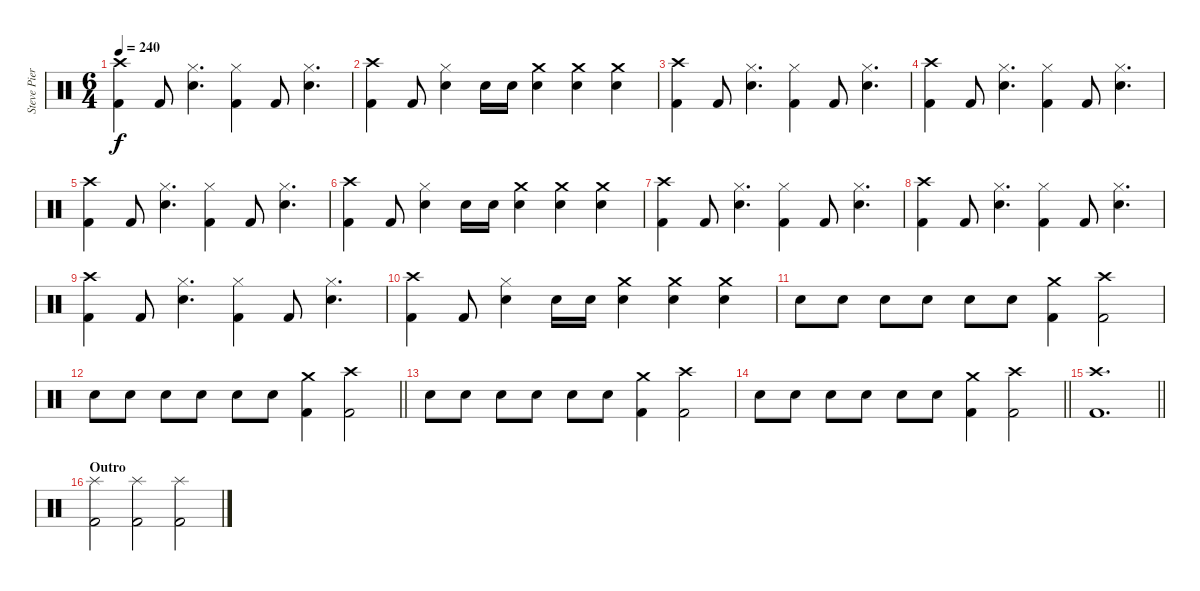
\track ("Steve Pierce" "Steve Pier") {instrument percussion}
\staff {score}
\articulation defaults
\ts (6 4)
\tempo 240
\clef neutral
\ks c
("Crash high (hit)" "Kick (hit) 2").4{dy f} "Kick (hit) 2".8 ("Hi-Hat (closed)" "Snare (hit) 2").4{d} ("Hi-Hat (closed)" "Kick (hit) 2").4 "Kick (hit) 2".8 ("Hi-Hat (closed)" "Snare (hit) 2").4{d} |
("Crash high (hit)" "Kick (hit) 2").4 "Kick (hit) 2".8 ("Hi-Hat (closed)" "Snare (hit) 2").4 "Snare (hit) 2".16 "Snare (hit) 2".16 ("Crash medium (hit)" "Snare (hit) 2").4 ("Crash medium (hit)" "Snare (hit) 2").4 ("Crash medium (hit)" "Snare (hit) 2").4 |
("Crash high (hit)" "Kick (hit) 2").4 "Kick (hit) 2".8 ("Hi-Hat (closed)" "Snare (hit) 2").4{d} ("Hi-Hat (closed)" "Kick (hit) 2").4 "Kick (hit) 2".8 ("Hi-Hat (closed)" "Snare (hit) 2").4{d} |
("Crash high (hit)" "Kick (hit) 2").4 "Kick (hit) 2".8 ("Hi-Hat (closed)" "Snare (hit) 2").4{d} ("Hi-Hat (closed)" "Kick (hit) 2").4 "Kick (hit) 2".8 ("Hi-Hat (closed)" "Snare (hit) 2").4{d} |
("Crash high (hit)" "Kick (hit) 2").4 "Kick (hit) 2".8 ("Hi-Hat (closed)" "Snare (hit) 2").4{d} ("Hi-Hat (closed)" "Kick (hit) 2").4 "Kick (hit) 2".8 ("Hi-Hat (closed)" "Snare (hit) 2").4{d} |
("Crash high (hit)" "Kick (hit) 2").4 "Kick (hit) 2".8 ("Hi-Hat (closed)" "Snare (hit) 2").4 "Snare (hit) 2".16 "Snare (hit) 2".16 ("Crash medium (hit)" "Snare (hit) 2").4 ("Crash medium (hit)" "Snare (hit) 2").4 ("Crash medium (hit)" "Snare (hit) 2").4 |
("Crash high (hit)" "Kick (hit) 2").4 "Kick (hit) 2".8 ("Hi-Hat (closed)" "Snare (hit) 2").4{d} ("Hi-Hat (closed)" "Kick (hit) 2").4 "Kick (hit) 2".8 ("Hi-Hat (closed)" "Snare (hit) 2").4{d} |
("Crash high (hit)" "Kick (hit) 2").4 "Kick (hit) 2".8 ("Hi-Hat (closed)" "Snare (hit) 2").4{d} ("Hi-Hat (closed)" "Kick (hit) 2").4 "Kick (hit) 2".8 ("Hi-Hat (closed)" "Snare (hit) 2").4{d} |
("Crash high (hit)" "Kick (hit) 2").4 "Kick (hit) 2".8 ("Hi-Hat (closed)" "Snare (hit) 2").4{d} ("Hi-Hat (closed)" "Kick (hit) 2").4 "Kick (hit) 2".8 ("Hi-Hat (closed)" "Snare (hit) 2").4{d} |
("Crash high (hit)" "Kick (hit) 2").4 "Kick (hit) 2".8 ("Hi-Hat (closed)" "Snare (hit) 2").4 "Snare (hit) 2".16 "Snare (hit) 2".16 ("Crash medium (hit)" "Snare (hit) 2").4 ("Crash medium (hit)" "Snare (hit) 2").4 ("Crash medium (hit)" "Snare (hit) 2").4 |
"Snare (hit) 2".8 "Snare (hit) 2".8 "Snare (hit) 2".8 "Snare (hit) 2".8 "Snare (hit) 2".8 "Snare (hit) 2".8 ("Crash medium (hit)" "Kick (hit) 2").4 ("Crash high (hit)" "Kick (hit) 2").2 |
\barLineRight lightlight "Snare (hit) 2".8 "Snare (hit) 2".8 "Snare (hit) 2".8 "Snare (hit) 2".8 "Snare (hit) 2".8 "Snare (hit) 2".8
("Crash medium (hit)" "Kick (hit) 2").4 ("Crash high (hit)" "Kick (hit) 2").2 |
"Snare (hit) 2".8 "Snare (hit) 2".8 "Snare (hit) 2".8 "Snare (hit) 2".8 "Snare (hit) 2".8 "Snare (hit) 2".8 ("Crash medium (hit)" "Kick (hit) 2").4 ("Crash high (hit)" "Kick (hit) 2").2 |
\barLineRight lightlight "Snare (hit) 2".8 "Snare (hit) 2".8 "Snare (hit) 2".8 "Snare (hit) 2".8 "Snare (hit) 2".8 "Snare (hit) 2".8
("Crash medium (hit)" "Kick (hit) 2").4 ("Crash high (hit)" "Kick (hit) 2").2 |
\barLineRight lightlight
("Crash high (hit)" "Kick (hit) 2").1{d} |
\section ("" "Outro")
("Splash (hit)" "Kick (hit) 2").2 ("Splash (hit)" "Kick (hit) 2").2 ("Splash (hit)" "Kick (hit) 2").2
